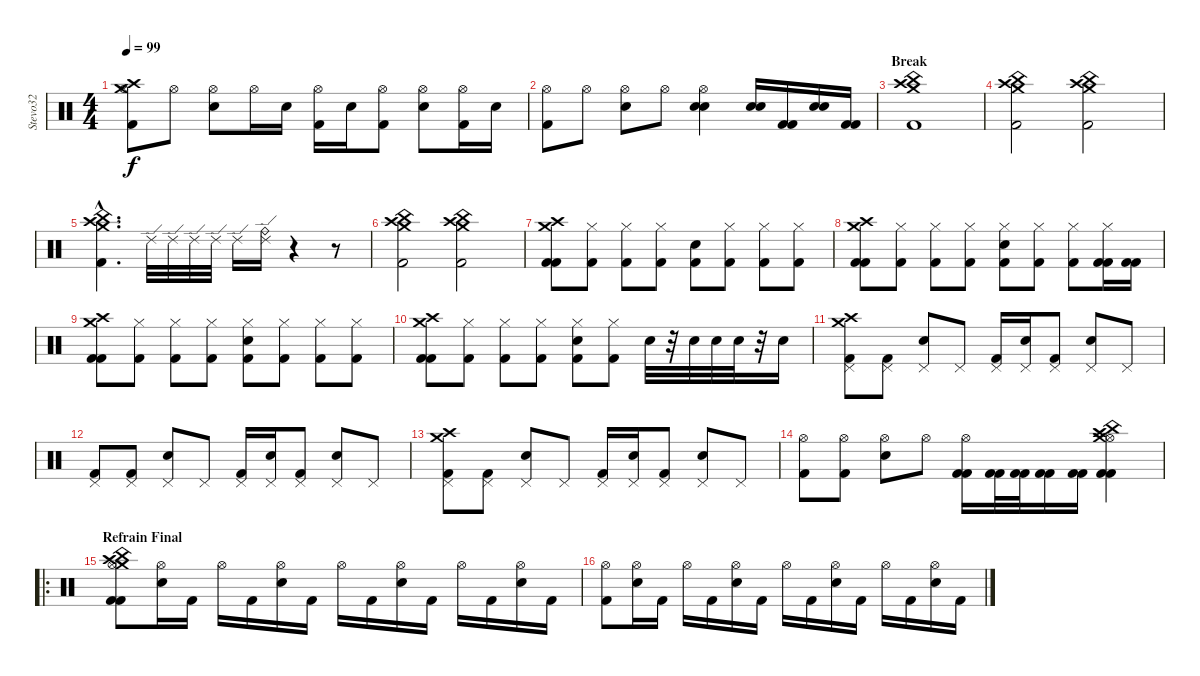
\track ("Stevo32" "Stevo32") {instrument percussion}
\staff {score}
\articulation defaults
\ts (4 4)
\tempo 99
\clef neutral
\ks c
("Crash medium (hit)" "Hi-Hat (open)" "Crash high (hit)" "Kick (hit) 2").8{dy f} "Hi-Hat (open)".8 ("Hi-Hat (open)" "Electric Snare (hit)").8 "Hi-Hat (open)".16 "Electric Snare (hit)".16 ("Hi-Hat (open)" "Kick (hit) 2").16 "Electric Snare (hit)".16 ("Hi-Hat (open)" "Kick (hit) 2").8 ("Hi-Hat (open)" "Electric Snare (hit)").8 ("Hi-Hat (open)" "Kick (hit) 2").16 "Electric Snare (hit)".16 |
("Hi-Hat (open)" "Kick (hit) 2").8 "Hi-Hat (open)".8 ("Hi-Hat (open)" "Electric Snare (hit)").8 "Hi-Hat (open)".8 ("Hi-Hat (open)" "Electric Snare (hit)" "Electric Snare (hit)").4 ("Electric Snare (hit)" "Electric Snare (hit)").16 ("Kick (hit) 2" "Kick (hit) 2").16 ("Electric Snare (hit)" "Electric Snare (hit)").16 ("Kick (hit) 2" "Kick (hit) 2").16 |
\section ("" "Break")
("China (hit)" "Crash high (hit)" "Crash medium (hit)" "Kick (hit) 2").1 |
("China (hit)" "Crash high (hit)" "Crash medium (hit)" "Kick (hit) 2").2 ("China (hit)" "Crash high (hit)" "Crash medium (hit)" "Kick (hit) 2").2 |
("China (hit)"{hac} "Crash high (hit)"{hac} "Crash medium (hit)"{hac} "Kick (hit) 2"{hac}).4{d} "Ride (edge) 2".32 "Ride (edge) 2".32 "Ride (edge) 2".32 "Ride (edge) 2".32 "Ride (edge) 2".16 ("Ride (edge) 2" "Ride (bell)").16 r.4 r.8 |
("China (hit)" "Crash high (hit)" "Crash medium (hit)" "Kick (hit) 2").2 ("China (hit)" "Crash high (hit)" "Crash medium (hit)" "Kick (hit) 2").2 |
("Crash medium (hit)" "Crash high (hit)" "Kick (hit) 2" "Kick (hit) 2").8 ("Hi-Hat (closed)" "Kick (hit) 2").8 ("Hi-Hat (closed)" "Kick (hit) 2").8 ("Hi-Hat (closed)" "Kick (hit) 2").8 ("Electric Snare (hit)" "Kick (hit) 2").8 ("Hi-Hat (closed)" "Kick (hit) 2").8 ("Hi-Hat (closed)" "Kick (hit) 2").8 ("Hi-Hat (closed)" "Kick (hit) 2").8 |
("Crash medium (hit)" "Crash high (hit)" "Kick (hit) 2" "Kick (hit) 2").8 ("Hi-Hat (closed)" "Kick (hit) 2").8 ("Hi-Hat (closed)" "Kick (hit) 2").8 ("Hi-Hat (closed)" "Kick (hit) 2").8 ("Hi-Hat (closed)" "Electric Snare (hit)" "Kick (hit) 2").8 ("Hi-Hat (closed)" "Kick (hit) 2").8 ("Hi-Hat (closed)" "Kick (hit) 2").8 ("Hi-Hat (closed)" "Kick (hit) 2" "Kick (hit) 2").16 ("Kick (hit) 2" "Kick (hit) 2").16 |
("Crash medium (hit)" "Crash high (hit)" "Kick (hit) 2" "Kick (hit) 2").8 ("Hi-Hat (closed)" "Kick (hit) 2").8 ("Hi-Hat (closed)" "Kick (hit) 2").8 ("Hi-Hat (closed)" "Kick (hit) 2").8 ("Hi-Hat (closed)" "Electric Snare (hit)" "Kick (hit) 2").8 ("Hi-Hat (closed)" "Kick (hit) 2").8 ("Hi-Hat (closed)" "Kick (hit) 2").8 ("Hi-Hat (closed)" "Kick (hit) 2").8 |
("Crash medium (hit)" "Crash high (hit)" "Kick (hit) 2" "Kick (hit) 2").8 ("Hi-Hat (closed)" "Kick (hit) 2").8 ("Hi-Hat (closed)" "Kick (hit) 2").8 ("Hi-Hat (closed)" "Kick (hit) 2").8 ("Hi-Hat (closed)" "Electric Snare (hit)" "Kick (hit) 2").8 ("Hi-Hat (closed)" "Kick (hit) 2").8 "Electric Snare (hit)".32 r.32 "Electric Snare (hit)".32 "Electric Snare (hit)".32 "Electric Snare (hit)".32 r.32 "Electric Snare (hit)".16 |
("Crash medium (hit)" "Pedal Hi-Hat (hit)" "Crash high (hit)" "Kick (hit) 2").8 ("Pedal Hi-Hat (hit)" "Kick (hit) 2").8 ("Pedal Hi-Hat (hit)" "Electric Snare (hit)").8 "Pedal Hi-Hat (hit)".8 ("Pedal Hi-Hat (hit)" "Kick (hit) 2").16 ("Pedal Hi-Hat (hit)" "Electric Snare (hit)").16 ("Pedal Hi-Hat (hit)" "Kick (hit) 2").8 ("Pedal Hi-Hat (hit)" "Electric Snare (hit)").8 "Pedal Hi-Hat (hit)".8 |
("Pedal Hi-Hat (hit)" "Kick (hit) 2").8 ("Pedal Hi-Hat (hit)" "Kick (hit) 2").8 ("Pedal Hi-Hat (hit)" "Electric Snare (hit)").8 "Pedal Hi-Hat (hit)".8 ("Pedal Hi-Hat (hit)" "Kick (hit) 2").16 ("Pedal Hi-Hat (hit)" "Electric Snare (hit)").16 ("Pedal Hi-Hat (hit)" "Kick (hit) 2").8 ("Pedal Hi-Hat (hit)" "Electric Snare (hit)").8 "Pedal Hi-Hat (hit)".8 |
("Crash medium (hit)" "Pedal Hi-Hat (hit)" "Crash high (hit)" "Kick (hit) 2").8 ("Pedal Hi-Hat (hit)" "Kick (hit) 2").8 ("Pedal Hi-Hat (hit)" "Electric Snare (hit)").8 "Pedal Hi-Hat (hit)".8 ("Pedal Hi-Hat (hit)" "Kick (hit) 2").16 ("Pedal Hi-Hat (hit)" "Electric Snare (hit)").16 ("Pedal Hi-Hat (hit)" "Kick (hit) 2").8 ("Pedal Hi-Hat (hit)" "Electric Snare (hit)").8 "Pedal Hi-Hat (hit)".8 |
("Hi-Hat (open)" "Kick (hit) 2").8 ("Hi-Hat (open)" "Kick (hit) 2").8 ("Hi-Hat (open)" "Electric Snare (hit)").8 "Hi-Hat (open)".8 ("Hi-Hat (open)" "Kick (hit) 2" "Kick (hit) 2").16 ("Kick (hit) 2" "Kick (hit) 2").32 ("Kick (hit) 2" "Kick (hit) 2").32 ("Kick (hit) 2" "Kick (hit) 2").16 ("Kick (hit) 2" "Kick (hit) 2").16 ("Hi-Hat (open)" "China (hit)" "Crash medium (hit)" "Crash high (hit)" "Kick (hit) 2" "Kick (hit) 2").4 |
\ro
\section ("" "Refrain Final")
("China (hit)" "Crash high (hit)" "Crash medium (hit)" "Hi-Hat (open)" "Kick (hit) 2" "Kick (hit) 2").8 ("Hi-Hat (open)" "Electric Snare (hit)").16 "Kick (hit) 2".16 "Hi-Hat (open)".16 "Kick (hit) 2".16 ("Hi-Hat (open)" "Electric Snare (hit)").16 "Kick (hit) 2".16 "Hi-Hat (open)".16 "Kick (hit) 2".16 ("Hi-Hat (open)" "Electric Snare (hit)").16 "Kick (hit) 2".16 "Hi-Hat (open)".16 "Kick (hit) 2".16 ("Hi-Hat (open)" "Electric Snare (hit)").16 "Kick (hit) 2".16 |
("Hi-Hat (open)" "Kick (hit) 2").8 ("Hi-Hat (open)" "Electric Snare (hit)").16 "Kick (hit) 2".16 "Hi-Hat (open)".16 "Kick (hit) 2".16 ("Hi-Hat (open)" "Electric Snare (hit)").16 "Kick (hit) 2".16 "Hi-Hat (open)".16 "Kick (hit) 2".16 ("Hi-Hat (open)" "Electric Snare (hit)").16 "Kick (hit) 2".16 "Hi-Hat (open)".16 "Kick (hit) 2".16 ("Hi-Hat (open)" "Electric Snare (hit)").16 "Kick (hit) 2".16
